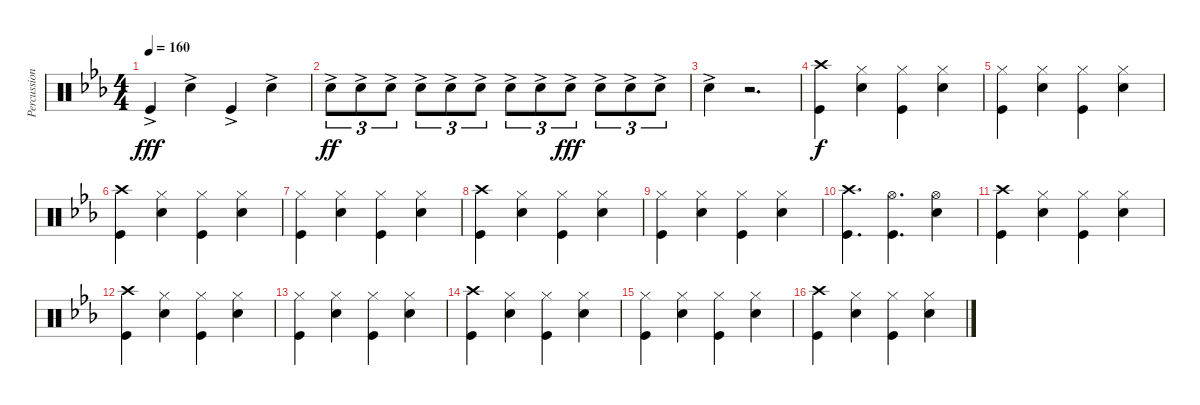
\track ("Percussion" "Percussion") {instrument percussion}
\staff {score}
\articulation defaults
\ts (4 4)
\tempo 160
\clef neutral
\ks eb "Kick (hit)"{ac}.4{dy fff} "Snare (hit) 2"{ac}.4 "Kick (hit)"{ac}.4 "Snare (hit) 2"{ac}.4
|
"Snare (hit) 2"{ac}.8{tu (3 2) dy ff} "Snare (hit) 2"{ac}.8{tu (3 2)} "Snare (hit) 2"{ac}.8{tu (3 2)} "Snare (hit) 2"{ac}.8{tu (3 2)} "Snare (hit) 2"{ac}.8{tu (3 2)} "Snare (hit) 2"{ac}.8{tu (3 2)} "Snare (hit) 2"{ac}.8{tu (3 2)} "Snare (hit) 2"{ac}.8{tu (3 2)} "Snare (hit) 2"{ac}.8{tu (3 2) dy fff} "Snare (hit) 2"{ac}.8{tu (3 2)} "Snare (hit) 2"{ac}.8{tu (3 2)} "Snare (hit) 2"{ac}.8{tu (3 2)} |
"Snare (hit) 2"{ac}.4 r.2{d} |
("Crash high (hit)" "Kick (hit)").4{dy f} ("Hi-Hat (closed)" "Snare (hit) 2").4 ("Hi-Hat (closed)" "Kick (hit)").4 ("Hi-Hat (closed)" "Snare (hit) 2").4 |
("Hi-Hat (closed)" "Kick (hit)").4 ("Hi-Hat (closed)" "Snare (hit) 2").4 ("Hi-Hat (closed)" "Kick (hit)").4 ("Hi-Hat (closed)" "Snare (hit) 2").4 |
("Crash high (hit)" "Kick (hit)").4 ("Hi-Hat (closed)" "Snare (hit) 2").4 ("Hi-Hat (closed)" "Kick (hit)").4 ("Hi-Hat (closed)" "Snare (hit) 2").4 |
("Hi-Hat (closed)" "Kick (hit)").4 ("Hi-Hat (closed)" "Snare (hit) 2").4 ("Hi-Hat (closed)" "Kick (hit)").4 ("Hi-Hat (closed)" "Snare (hit) 2").4 |
("Crash high (hit)" "Kick (hit)").4 ("Hi-Hat (closed)" "Snare (hit) 2").4 ("Hi-Hat (closed)" "Kick (hit)").4 ("Hi-Hat (closed)" "Snare (hit) 2").4 |
("Hi-Hat (closed)" "Kick (hit)").4 ("Hi-Hat (closed)" "Snare (hit) 2").4 ("Hi-Hat (closed)" "Kick (hit)").4 ("Hi-Hat (closed)" "Snare (hit) 2").4 |
("Kick (hit)" "Crash high (hit)").4{d} ("Hi-Hat (open)" "Kick (hit)").4{d} ("Hi-Hat (open)" "Snare (hit) 2").4 |
("Kick (hit)" "Crash high (hit)").4 ("Snare (hit) 2" "Hi-Hat (closed)").4 ("Kick (hit)" "Hi-Hat (closed)").4 ("Snare (hit) 2" "Hi-Hat (closed)").4 |
("Crash high (hit)" "Kick (hit)").4 ("Hi-Hat (closed)" "Snare (hit) 2").4 ("Hi-Hat (closed)" "Kick (hit)").4 ("Hi-Hat (closed)" "Snare (hit) 2").4 |
("Hi-Hat (closed)" "Kick (hit)").4 ("Hi-Hat (closed)" "Snare (hit) 2").4 ("Hi-Hat (closed)" "Kick (hit)").4 ("Hi-Hat (closed)" "Snare (hit) 2").4 |
("Crash high (hit)" "Kick (hit)").4 ("Hi-Hat (closed)" "Snare (hit) 2").4 ("Hi-Hat (closed)" "Kick (hit)").4 ("Hi-Hat (closed)" "Snare (hit) 2").4 |
("Hi-Hat (closed)" "Kick (hit)").4 ("Hi-Hat (closed)" "Snare (hit) 2").4 ("Hi-Hat (closed)" "Kick (hit)").4 ("Hi-Hat (closed)" "Snare (hit) 2").4 |
("Crash high (hit)" "Kick (hit)").4 ("Hi-Hat (closed)" "Snare (hit) 2").4 ("Hi-Hat (closed)" "Kick (hit)").4 ("Hi-Hat (closed)" "Snare (hit) 2").4
